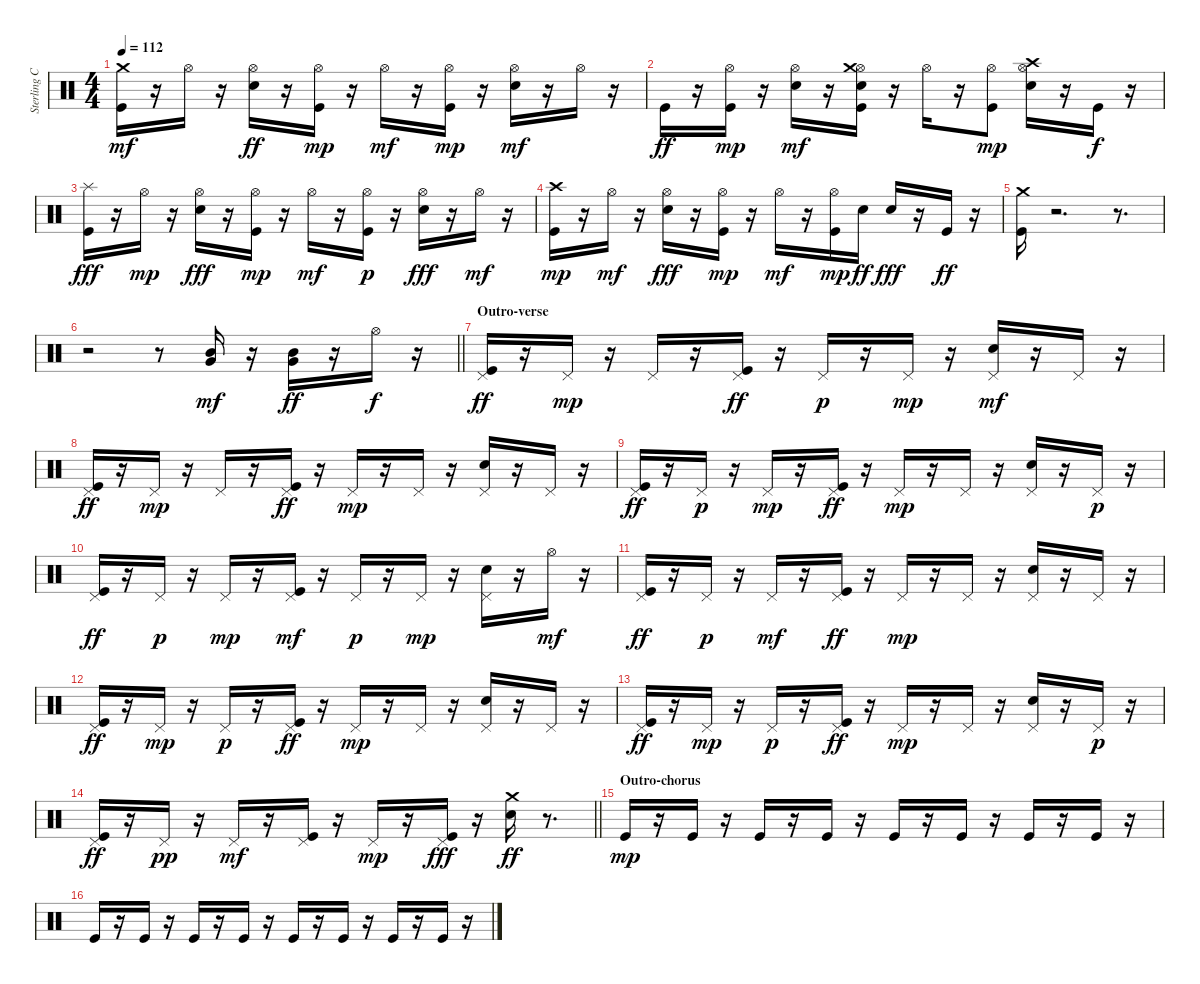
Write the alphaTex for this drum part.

\track ("Sterling Campbell" "Sterling C") {instrument percussion}
\staff {score}
\articulation defaults
\ts (4 4)
\tempo 112
\clef neutral
\ks c
("Kick (hit)" "Crash medium (hit)").16{dy mf} r.16 "Hi-Hat (open)".16 r.16 ("Electric Snare (hit)" "Hi-Hat (open)").16{dy ff} r.16 ("Kick (hit)" "Hi-Hat (open)").16{dy mp} r.16 "Hi-Hat (open)".16{dy mf} r.16 ("Kick (hit)" "Hi-Hat (open)").16{dy mp} r.16 ("Electric Snare (hit)" "Hi-Hat (open)").16{dy mf} r.16 "Hi-Hat (open)".16 r.16 |
"Kick (hit)".16{dy ff} r.16 ("Kick (hit)" "Hi-Hat (open)").16{dy mp} r.16 ("Electric Snare (hit)" "Hi-Hat (open)").16{dy mf} r.16 ("Electric Snare (hit)" "Kick (hit)" "Hi-Hat (open)" "Crash medium (hit)").16 r.16 "Hi-Hat (open)".16 r.16 ("Kick (hit)" "Hi-Hat (open)").8{dy mp} ("Electric Snare (hit)" "Hi-Hat (open)" "Crash high (hit)").16 r.16 "Kick (hit)".16{dy f} r.16 |
("Kick (hit)" "Splash (hit)").16{dy fff} r.16 "Hi-Hat (open)".16{dy mp} r.16 ("Electric Snare (hit)" "Hi-Hat (open)").16{dy fff} r.16 ("Kick (hit)" "Hi-Hat (open)").16{dy mp} r.16 "Hi-Hat (open)".16{dy mf} r.16 ("Kick (hit)" "Hi-Hat (open)").16{dy p} r.16 ("Electric Snare (hit)" "Hi-Hat (open)").16{dy fff} r.16 "Hi-Hat (open)".16{dy mf} r.16 |
("Kick (hit)" "Crash high (hit)").16{dy mp} r.16 "Hi-Hat (open)".16{dy mf} r.16 ("Electric Snare (hit)" "Hi-Hat (open)").16{dy fff} r.16 ("Kick (hit)" "Hi-Hat (open)").16{dy mp} r.16 "Hi-Hat (open)".16{dy mf} r.16 ("Kick (hit)" "Hi-Hat (open)").16{dy mp} "Electric Snare (hit)".16{dy ff} "Electric Snare (hit)".16{dy fff} r.16 "Kick (hit)".16{dy ff} r.16 |
("Kick (hit)" "Crash medium (hit)").16 r.2{d} r.8{d} |
\barLineRight lightlight
r.2 r.8 ("Mid Tom (hit)" "Very Low Tom (hit)").16{dy mf} r.16 ("Mid Tom (hit)" "Very Low Tom (hit)").16{dy ff} r.16 "Hi-Hat (open)".16{dy f} r.16 |
\section ("" "Outro-verse")
("Kick (hit)" "Pedal Hi-Hat (hit)").16{dy ff} r.16 "Pedal Hi-Hat (hit)".16{dy mp} r.16 "Pedal Hi-Hat (hit)".16 r.16 ("Kick (hit)" "Pedal Hi-Hat (hit)").16{dy ff} r.16 "Pedal Hi-Hat (hit)".16{dy p} r.16 "Pedal Hi-Hat (hit)".16{dy mp} r.16 ("Electric Snare (hit)" "Pedal Hi-Hat (hit)").16{dy mf} r.16 "Pedal Hi-Hat (hit)".16 r.16 |
("Kick (hit)" "Pedal Hi-Hat (hit)").16{dy ff} r.16 "Pedal Hi-Hat (hit)".16{dy mp} r.16 "Pedal Hi-Hat (hit)".16 r.16 ("Kick (hit)" "Pedal Hi-Hat (hit)").16{dy ff} r.16 "Pedal Hi-Hat (hit)".16{dy mp} r.16 "Pedal Hi-Hat (hit)".16 r.16 ("Electric Snare (hit)" "Pedal Hi-Hat (hit)").16 r.16 "Pedal Hi-Hat (hit)".16 r.16 |
("Kick (hit)" "Pedal Hi-Hat (hit)").16{dy ff} r.16 "Pedal Hi-Hat (hit)".16{dy p} r.16 "Pedal Hi-Hat (hit)".16{dy mp} r.16 ("Kick (hit)" "Pedal Hi-Hat (hit)").16{dy ff} r.16 "Pedal Hi-Hat (hit)".16{dy mp} r.16 "Pedal Hi-Hat (hit)".16 r.16 ("Electric Snare (hit)" "Pedal Hi-Hat (hit)").16 r.16 "Pedal Hi-Hat (hit)".16{dy p} r.16 |
("Kick (hit)" "Pedal Hi-Hat (hit)").16{dy ff} r.16 "Pedal Hi-Hat (hit)".16{dy p} r.16 "Pedal Hi-Hat (hit)".16{dy mp} r.16 ("Kick (hit)" "Pedal Hi-Hat (hit)").16{dy mf} r.16 "Pedal Hi-Hat (hit)".16{dy p} r.16 "Pedal Hi-Hat (hit)".16{dy mp} r.16 ("Electric Snare (hit)" "Pedal Hi-Hat (hit)").16 r.16 "Hi-Hat (open)".16{dy mf} r.16 |
("Kick (hit)" "Pedal Hi-Hat (hit)").16{dy ff} r.16 "Pedal Hi-Hat (hit)".16{dy p} r.16 "Pedal Hi-Hat (hit)".16{dy mf} r.16 ("Kick (hit)" "Pedal Hi-Hat (hit)").16{dy ff} r.16 "Pedal Hi-Hat (hit)".16{dy mp} r.16 "Pedal Hi-Hat (hit)".16 r.16 ("Electric Snare (hit)" "Pedal Hi-Hat (hit)").16 r.16 "Pedal Hi-Hat (hit)".16 r.16 |
("Kick (hit)" "Pedal Hi-Hat (hit)").16{dy ff} r.16 "Pedal Hi-Hat (hit)".16{dy mp} r.16 "Pedal Hi-Hat (hit)".16{dy p} r.16 ("Kick (hit)" "Pedal Hi-Hat (hit)").16{dy ff} r.16 "Pedal Hi-Hat (hit)".16{dy mp} r.16 "Pedal Hi-Hat (hit)".16 r.16 ("Electric Snare (hit)" "Pedal Hi-Hat (hit)").16 r.16 "Pedal Hi-Hat (hit)".16 r.16 |
("Kick (hit)" "Pedal Hi-Hat (hit)").16{dy ff} r.16 "Pedal Hi-Hat (hit)".16{dy mp} r.16 "Pedal Hi-Hat (hit)".16{dy p} r.16 ("Kick (hit)" "Pedal Hi-Hat (hit)").16{dy ff} r.16 "Pedal Hi-Hat (hit)".16{dy mp} r.16 "Pedal Hi-Hat (hit)".16 r.16 ("Electric Snare (hit)" "Pedal Hi-Hat (hit)").16 r.16 "Pedal Hi-Hat (hit)".16{dy p} r.16 |
\barLineRight lightlight
("Kick (hit)" "Pedal Hi-Hat (hit)").16{dy ff} r.16 "Pedal Hi-Hat (hit)".16{dy pp} r.16 "Pedal Hi-Hat (hit)".16{dy mf} r.16 ("Kick (hit)" "Pedal Hi-Hat (hit)").16 r.16 "Pedal Hi-Hat (hit)".16{dy mp} r.16 ("Kick (hit)" "Pedal Hi-Hat (hit)").16{dy fff} r.16 ("Electric Snare (hit)" "Crash medium (hit)").16{dy ff} r.8{d} |
\section ("" "Outro-chorus")
"Kick (hit)".16{dy mp} r.16 "Kick (hit)".16 r.16 "Kick (hit)".16 r.16 "Kick (hit)".16 r.16 "Kick (hit)".16 r.16 "Kick (hit)".16 r.16 "Kick (hit)".16 r.16 "Kick (hit)".16 r.16 |
"Kick (hit)".16 r.16 "Kick (hit)".16 r.16 "Kick (hit)".16 r.16 "Kick (hit)".16 r.16 "Kick (hit)".16 r.16 "Kick (hit)".16 r.16 "Kick (hit)".16 r.16 "Kick (hit)".16 r.16
